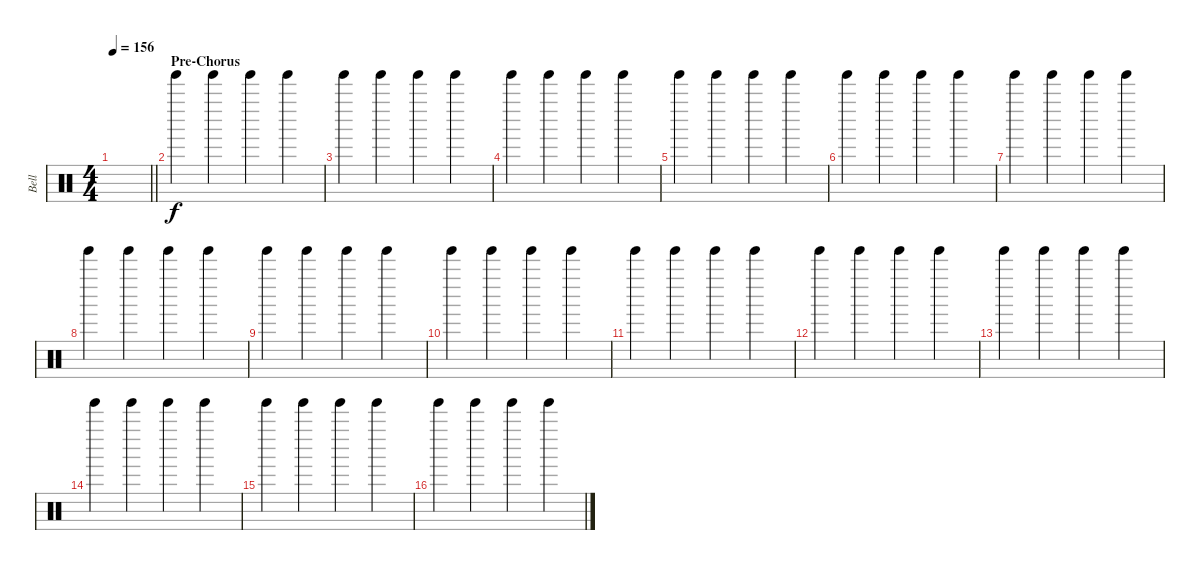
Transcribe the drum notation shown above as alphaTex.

\track ("Bell" "Bell") {instrument percussion}
\staff {score}
\articulation defaults
\ts (4 4)
\tempo 156
\clef neutral
\barLineRight lightlight
\ks c
|
\section ("" "Pre-Chorus")
"Tinkle Bell (hit)".4 "Tinkle Bell (hit)".4 "Tinkle Bell (hit)".4 "Tinkle Bell (hit)".4 |
"Tinkle Bell (hit)".4 "Tinkle Bell (hit)".4 "Tinkle Bell (hit)".4 "Tinkle Bell (hit)".4 |
"Tinkle Bell (hit)".4 "Tinkle Bell (hit)".4 "Tinkle Bell (hit)".4 "Tinkle Bell (hit)".4 |
"Tinkle Bell (hit)".4 "Tinkle Bell (hit)".4 "Tinkle Bell (hit)".4 "Tinkle Bell (hit)".4 |
"Tinkle Bell (hit)".4 "Tinkle Bell (hit)".4 "Tinkle Bell (hit)".4 "Tinkle Bell (hit)".4 |
"Tinkle Bell (hit)".4 "Tinkle Bell (hit)".4 "Tinkle Bell (hit)".4 "Tinkle Bell (hit)".4 |
"Tinkle Bell (hit)".4 "Tinkle Bell (hit)".4 "Tinkle Bell (hit)".4 "Tinkle Bell (hit)".4 |
"Tinkle Bell (hit)".4 "Tinkle Bell (hit)".4 "Tinkle Bell (hit)".4 "Tinkle Bell (hit)".4 |
"Tinkle Bell (hit)".4 "Tinkle Bell (hit)".4 "Tinkle Bell (hit)".4 "Tinkle Bell (hit)".4 |
"Tinkle Bell (hit)".4 "Tinkle Bell (hit)".4 "Tinkle Bell (hit)".4 "Tinkle Bell (hit)".4 |
"Tinkle Bell (hit)".4 "Tinkle Bell (hit)".4 "Tinkle Bell (hit)".4 "Tinkle Bell (hit)".4 |
"Tinkle Bell (hit)".4 "Tinkle Bell (hit)".4 "Tinkle Bell (hit)".4 "Tinkle Bell (hit)".4 |
"Tinkle Bell (hit)".4 "Tinkle Bell (hit)".4 "Tinkle Bell (hit)".4 "Tinkle Bell (hit)".4 |
"Tinkle Bell (hit)".4 "Tinkle Bell (hit)".4 "Tinkle Bell (hit)".4 "Tinkle Bell (hit)".4 |
"Tinkle Bell (hit)".4 "Tinkle Bell (hit)".4 "Tinkle Bell (hit)".4 "Tinkle Bell (hit)".4
